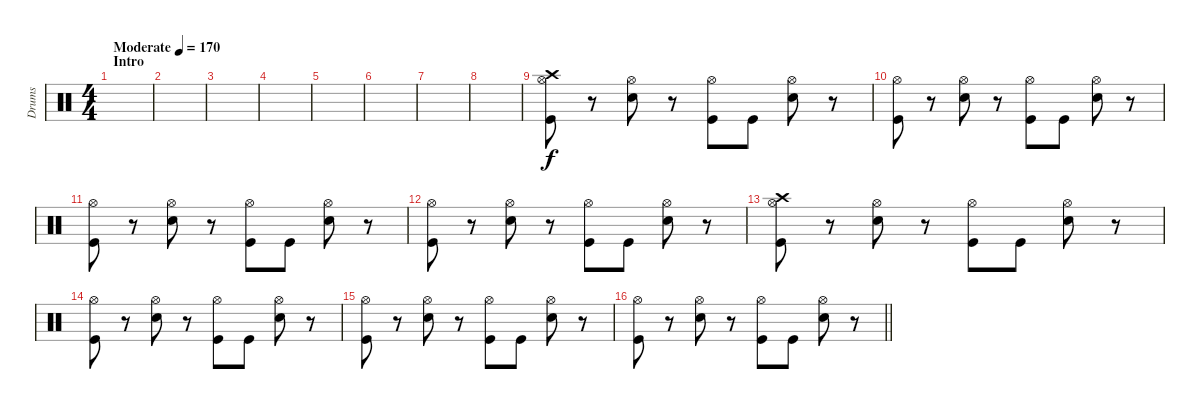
\track ("Drums" "Drums") {instrument percussion}
\staff {score}
\articulation defaults
\ts (4 4)
\section ("" "Intro")
\tempo (170 "Moderate")
\clef neutral
\ks c
|
|
|
|
|
|
|
|
("Hi-Hat (open)" "Crash high (hit)" "Kick (hit)").8 r.8 ("Hi-Hat (open)" "Snare (hit) 2").8 r.8 ("Hi-Hat (open)" "Kick (hit)").8 "Kick (hit)".8 ("Hi-Hat (open)" "Snare (hit) 2").8 r.8 |
("Hi-Hat (open)" "Kick (hit)").8 r.8 ("Hi-Hat (open)" "Snare (hit) 2").8 r.8 ("Hi-Hat (open)" "Kick (hit)").8 "Kick (hit)".8 ("Hi-Hat (open)" "Snare (hit) 2").8 r.8 |
("Hi-Hat (open)" "Kick (hit)").8 r.8 ("Hi-Hat (open)" "Snare (hit) 2").8 r.8 ("Hi-Hat (open)" "Kick (hit)").8 "Kick (hit)".8 ("Hi-Hat (open)" "Snare (hit) 2").8 r.8 |
("Hi-Hat (open)" "Kick (hit)").8 r.8 ("Hi-Hat (open)" "Snare (hit) 2").8 r.8 ("Hi-Hat (open)" "Kick (hit)").8 "Kick (hit)".8 ("Hi-Hat (open)" "Snare (hit) 2").8 r.8 |
("Hi-Hat (open)" "Crash high (hit)" "Kick (hit)").8 r.8 ("Hi-Hat (open)" "Snare (hit) 2").8 r.8 ("Hi-Hat (open)" "Kick (hit)").8 "Kick (hit)".8 ("Hi-Hat (open)" "Snare (hit) 2").8 r.8 |
("Hi-Hat (open)" "Kick (hit)").8 r.8 ("Hi-Hat (open)" "Snare (hit) 2").8 r.8 ("Hi-Hat (open)" "Kick (hit)").8 "Kick (hit)".8 ("Hi-Hat (open)" "Snare (hit) 2").8 r.8 |
("Hi-Hat (open)" "Kick (hit)").8 r.8 ("Hi-Hat (open)" "Snare (hit) 2").8 r.8 ("Hi-Hat (open)" "Kick (hit)").8 "Kick (hit)".8 ("Hi-Hat (open)" "Snare (hit) 2").8 r.8 |
\barLineRight lightlight
("Hi-Hat (open)" "Kick (hit)").8 r.8 ("Hi-Hat (open)" "Snare (hit) 2").8 r.8 ("Hi-Hat (open)" "Kick (hit)").8 "Kick (hit)".8 ("Hi-Hat (open)" "Snare (hit) 2").8 r.8
